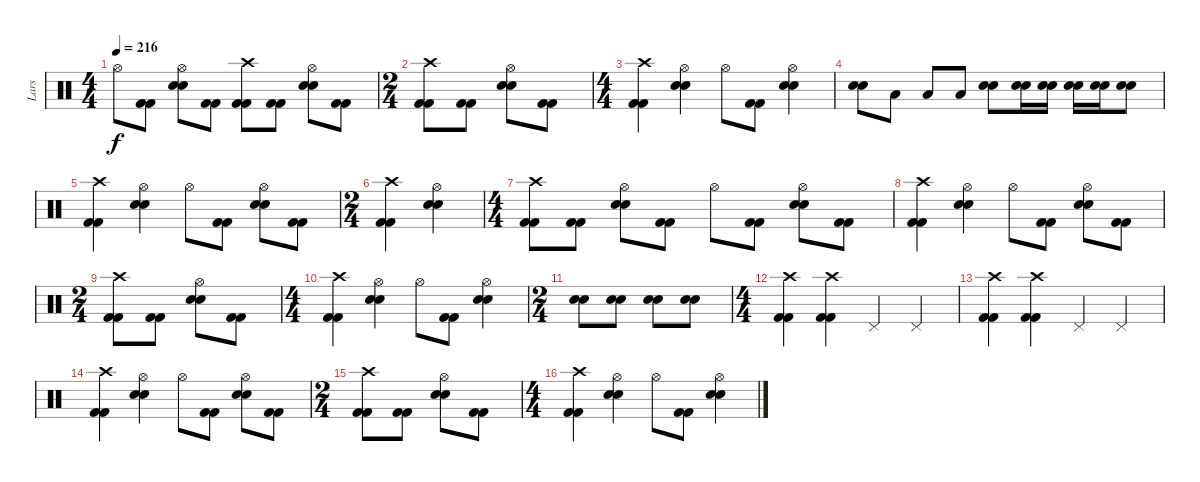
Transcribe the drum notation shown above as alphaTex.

\track ("Lars" "Lars") {instrument percussion}
\staff {score}
\articulation defaults
\ts (4 4)
\tempo 216
\clef neutral
\ks c "Hi-Hat (open)".8{dy f}
("Kick (hit) 2" "Kick (hit) 2").8 ("Hi-Hat (open)" "Electric Snare (hit)" "Electric Snare (hit)").8 ("Kick (hit) 2" "Kick (hit) 2").8 ("Crash high (hit)" "Kick (hit) 2" "Kick (hit) 2").8 ("Kick (hit) 2" "Kick (hit) 2").8 ("Hi-Hat (open)" "Electric Snare (hit)" "Electric Snare (hit)").8 ("Kick (hit) 2" "Kick (hit) 2").8 |
\ts (2 4)
("Crash high (hit)" "Kick (hit) 2" "Kick (hit) 2").8 ("Kick (hit) 2" "Kick (hit) 2").8 ("Hi-Hat (open)" "Electric Snare (hit)" "Electric Snare (hit)").8 ("Kick (hit) 2" "Kick (hit) 2").8 |
\ts (4 4)
("Crash high (hit)" "Kick (hit) 2" "Kick (hit) 2").4 ("Hi-Hat (open)" "Electric Snare (hit)" "Electric Snare (hit)").4 "Hi-Hat (open)".8 ("Kick (hit) 2" "Kick (hit) 2").8 ("Hi-Hat (open)" "Electric Snare (hit)" "Electric Snare (hit)").4 |
("Electric Snare (hit)" "Electric Snare (hit)").8 "Low Tom (hit)".8 "Low Tom (hit)".8 "Low Tom (hit)".8 ("Electric Snare (hit)" "Electric Snare (hit)").8 ("Electric Snare (hit)" "Electric Snare (hit)").16 ("Electric Snare (hit)" "Electric Snare (hit)").16 ("Electric Snare (hit)" "Electric Snare (hit)").16 ("Electric Snare (hit)" "Electric Snare (hit)").16 ("Electric Snare (hit)" "Electric Snare (hit)").8 |
("Crash high (hit)" "Kick (hit) 2" "Kick (hit) 2").4 ("Hi-Hat (open)" "Electric Snare (hit)" "Electric Snare (hit)").4 "Hi-Hat (open)".8 ("Kick (hit) 2" "Kick (hit) 2").8 ("Hi-Hat (open)" "Electric Snare (hit)" "Electric Snare (hit)").8 ("Kick (hit) 2" "Kick (hit) 2").8 |
\ts (2 4)
("Crash high (hit)" "Kick (hit) 2" "Kick (hit) 2").4 ("Hi-Hat (open)" "Electric Snare (hit)" "Electric Snare (hit)").4 |
\ts (4 4)
("Crash high (hit)" "Kick (hit) 2" "Kick (hit) 2").8 ("Kick (hit) 2" "Kick (hit) 2").8 ("Hi-Hat (open)" "Electric Snare (hit)" "Electric Snare (hit)").8 ("Kick (hit) 2" "Kick (hit) 2").8 "Hi-Hat (open)".8 ("Kick (hit) 2" "Kick (hit) 2").8 ("Hi-Hat (open)" "Electric Snare (hit)" "Electric Snare (hit)").8 ("Kick (hit) 2" "Kick (hit) 2").8 |
("Crash high (hit)" "Kick (hit) 2" "Kick (hit) 2").4 ("Hi-Hat (open)" "Electric Snare (hit)" "Electric Snare (hit)").4 "Hi-Hat (open)".8 ("Kick (hit) 2" "Kick (hit) 2").8 ("Hi-Hat (open)" "Electric Snare (hit)" "Electric Snare (hit)").8 ("Kick (hit) 2" "Kick (hit) 2").8 |
\ts (2 4)
("Crash high (hit)" "Kick (hit) 2" "Kick (hit) 2").8 ("Kick (hit) 2" "Kick (hit) 2").8 ("Hi-Hat (open)" "Electric Snare (hit)" "Electric Snare (hit)").8 ("Kick (hit) 2" "Kick (hit) 2").8 |
\ts (4 4)
("Crash high (hit)" "Kick (hit) 2" "Kick (hit) 2").4 ("Hi-Hat (open)" "Electric Snare (hit)" "Electric Snare (hit)").4 "Hi-Hat (open)".8 ("Kick (hit) 2" "Kick (hit) 2").8 ("Hi-Hat (open)" "Electric Snare (hit)" "Electric Snare (hit)").4 |
\ts (2 4)
("Electric Snare (hit)" "Electric Snare (hit)").8 ("Electric Snare (hit)" "Electric Snare (hit)").8 ("Electric Snare (hit)" "Electric Snare (hit)").8 ("Electric Snare (hit)" "Electric Snare (hit)").8 |
\ts (4 4)
("Crash high (hit)" "Kick (hit) 2" "Kick (hit) 2").4 ("Crash high (hit)" "Kick (hit) 2" "Kick (hit) 2").4 "Pedal Hi-Hat (hit)".4 "Pedal Hi-Hat (hit)".4 |
("Crash high (hit)" "Kick (hit) 2" "Kick (hit) 2").4 ("Crash high (hit)" "Kick (hit) 2" "Kick (hit) 2").4 "Pedal Hi-Hat (hit)".4 "Pedal Hi-Hat (hit)".4 |
("Crash high (hit)" "Kick (hit) 2" "Kick (hit) 2").4 ("Hi-Hat (open)" "Electric Snare (hit)" "Electric Snare (hit)").4 "Hi-Hat (open)".8 ("Kick (hit) 2" "Kick (hit) 2").8 ("Hi-Hat (open)" "Electric Snare (hit)" "Electric Snare (hit)").8 ("Kick (hit) 2" "Kick (hit) 2").8 |
\ts (2 4)
("Crash high (hit)" "Kick (hit) 2" "Kick (hit) 2").8 ("Kick (hit) 2" "Kick (hit) 2").8 ("Hi-Hat (open)" "Electric Snare (hit)" "Electric Snare (hit)").8 ("Kick (hit) 2" "Kick (hit) 2").8 |
\ts (4 4)
("Crash high (hit)" "Kick (hit) 2" "Kick (hit) 2").4 ("Hi-Hat (open)" "Electric Snare (hit)" "Electric Snare (hit)").4 "Hi-Hat (open)".8 ("Kick (hit) 2" "Kick (hit) 2").8 ("Hi-Hat (open)" "Electric Snare (hit)" "Electric Snare (hit)").4
